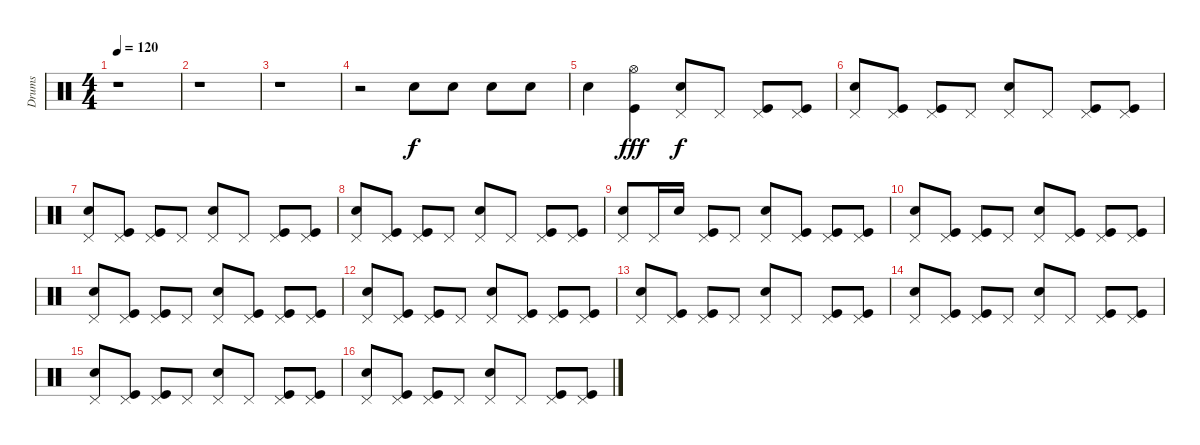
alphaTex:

\track ("Drums" "Drums") {instrument percussion}
\staff {score}
\articulation defaults
\ts (4 4)
\tempo 120
\clef neutral
\ks c
r.1{dy f} |
r.1 |
r.1 |
r.2 "Electric Snare (hit)".8 "Snare (hit) 2".8 "Snare (hit) 2".8 "Electric Snare (hit)".8 |
"Electric Snare (hit)".4 ("Kick (hit)" "Hi-Hat (open)").4{dy fff} ("Snare (hit) 2" "Pedal Hi-Hat (hit)").8{dy f} "Pedal Hi-Hat (hit)".8 ("Kick (hit)" "Pedal Hi-Hat (hit)").8 ("Kick (hit)" "Pedal Hi-Hat (hit)").8 |
("Snare (hit) 2" "Pedal Hi-Hat (hit)").8 ("Kick (hit)" "Pedal Hi-Hat (hit)").8 ("Kick (hit)" "Pedal Hi-Hat (hit)").8 "Pedal Hi-Hat (hit)".8 ("Snare (hit) 2" "Pedal Hi-Hat (hit)").8 "Pedal Hi-Hat (hit)".8 ("Kick (hit)" "Pedal Hi-Hat (hit)").8 ("Kick (hit)" "Pedal Hi-Hat (hit)").8 |
("Snare (hit) 2" "Pedal Hi-Hat (hit)").8 ("Kick (hit)" "Pedal Hi-Hat (hit)").8 ("Kick (hit)" "Pedal Hi-Hat (hit)").8 "Pedal Hi-Hat (hit)".8 ("Snare (hit) 2" "Pedal Hi-Hat (hit)").8 "Pedal Hi-Hat (hit)".8 ("Kick (hit)" "Pedal Hi-Hat (hit)").8 ("Kick (hit)" "Pedal Hi-Hat (hit)").8 |
("Snare (hit) 2" "Pedal Hi-Hat (hit)").8 ("Kick (hit)" "Pedal Hi-Hat (hit)").8 ("Kick (hit)" "Pedal Hi-Hat (hit)").8 "Pedal Hi-Hat (hit)".8 ("Snare (hit) 2" "Pedal Hi-Hat (hit)").8 "Pedal Hi-Hat (hit)".8 ("Kick (hit)" "Pedal Hi-Hat (hit)").8 ("Kick (hit)" "Pedal Hi-Hat (hit)").8 |
("Snare (hit) 2" "Pedal Hi-Hat (hit)").8 "Pedal Hi-Hat (hit)".16 "Snare (hit) 2".16 ("Kick (hit)" "Pedal Hi-Hat (hit)").8 "Pedal Hi-Hat (hit)".8 ("Snare (hit) 2" "Pedal Hi-Hat (hit)").8 ("Kick (hit)" "Pedal Hi-Hat (hit)").8 ("Kick (hit)" "Pedal Hi-Hat (hit)").8 ("Kick (hit)" "Pedal Hi-Hat (hit)").8 |
("Snare (hit) 2" "Pedal Hi-Hat (hit)").8 ("Kick (hit)" "Pedal Hi-Hat (hit)").8 ("Kick (hit)" "Pedal Hi-Hat (hit)").8 "Pedal Hi-Hat (hit)".8 ("Snare (hit) 2" "Pedal Hi-Hat (hit)").8 ("Kick (hit)" "Pedal Hi-Hat (hit)").8 ("Kick (hit)" "Pedal Hi-Hat (hit)").8 ("Kick (hit)" "Pedal Hi-Hat (hit)").8 |
("Snare (hit) 2" "Pedal Hi-Hat (hit)").8 ("Kick (hit)" "Pedal Hi-Hat (hit)").8 ("Kick (hit)" "Pedal Hi-Hat (hit)").8 "Pedal Hi-Hat (hit)".8 ("Snare (hit) 2" "Pedal Hi-Hat (hit)").8 ("Kick (hit)" "Pedal Hi-Hat (hit)").8 ("Kick (hit)" "Pedal Hi-Hat (hit)").8 ("Kick (hit)" "Pedal Hi-Hat (hit)").8 |
("Snare (hit) 2" "Pedal Hi-Hat (hit)").8 ("Kick (hit)" "Pedal Hi-Hat (hit)").8 ("Kick (hit)" "Pedal Hi-Hat (hit)").8 "Pedal Hi-Hat (hit)".8 ("Snare (hit) 2" "Pedal Hi-Hat (hit)").8 ("Kick (hit)" "Pedal Hi-Hat (hit)").8 ("Kick (hit)" "Pedal Hi-Hat (hit)").8 ("Kick (hit)" "Pedal Hi-Hat (hit)").8 |
("Snare (hit) 2" "Pedal Hi-Hat (hit)").8 ("Kick (hit)" "Pedal Hi-Hat (hit)").8 ("Kick (hit)" "Pedal Hi-Hat (hit)").8 "Pedal Hi-Hat (hit)".8 ("Snare (hit) 2" "Pedal Hi-Hat (hit)").8 "Pedal Hi-Hat (hit)".8 ("Kick (hit)" "Pedal Hi-Hat (hit)").8 ("Kick (hit)" "Pedal Hi-Hat (hit)").8 |
("Snare (hit) 2" "Pedal Hi-Hat (hit)").8 ("Kick (hit)" "Pedal Hi-Hat (hit)").8 ("Kick (hit)" "Pedal Hi-Hat (hit)").8 "Pedal Hi-Hat (hit)".8 ("Snare (hit) 2" "Pedal Hi-Hat (hit)").8 "Pedal Hi-Hat (hit)".8 ("Kick (hit)" "Pedal Hi-Hat (hit)").8 ("Kick (hit)" "Pedal Hi-Hat (hit)").8 |
("Snare (hit) 2" "Pedal Hi-Hat (hit)").8 ("Kick (hit)" "Pedal Hi-Hat (hit)").8 ("Kick (hit)" "Pedal Hi-Hat (hit)").8 "Pedal Hi-Hat (hit)".8 ("Snare (hit) 2" "Pedal Hi-Hat (hit)").8 "Pedal Hi-Hat (hit)".8 ("Kick (hit)" "Pedal Hi-Hat (hit)").8 ("Kick (hit)" "Pedal Hi-Hat (hit)").8 |
("Snare (hit) 2" "Pedal Hi-Hat (hit)").8 ("Kick (hit)" "Pedal Hi-Hat (hit)").8 ("Kick (hit)" "Pedal Hi-Hat (hit)").8 "Pedal Hi-Hat (hit)".8 ("Snare (hit) 2" "Pedal Hi-Hat (hit)").8 "Pedal Hi-Hat (hit)".8 ("Kick (hit)" "Pedal Hi-Hat (hit)").8 ("Kick (hit)" "Pedal Hi-Hat (hit)").8
